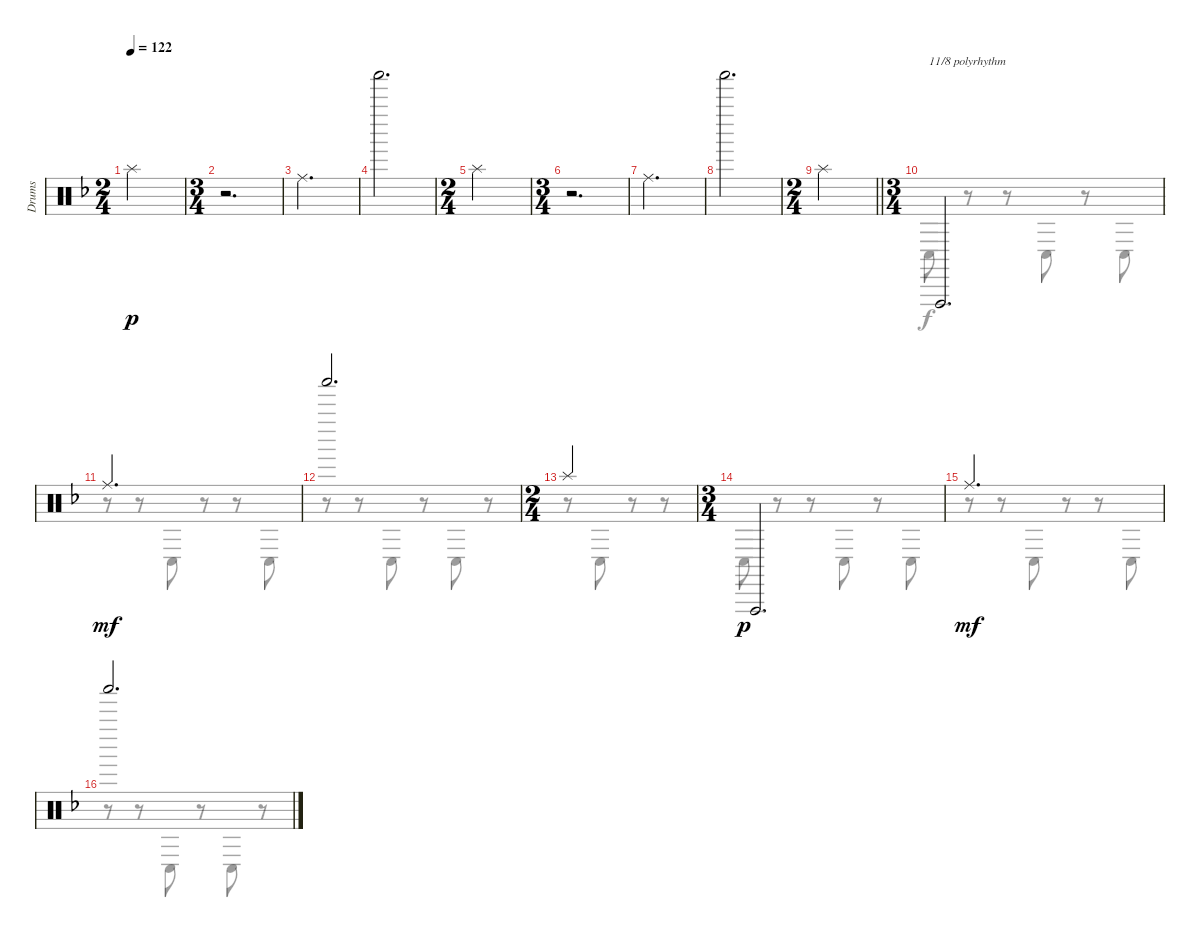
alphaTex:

\track ("Drums" "Drums") {instrument percussion}
\staff {score}
\articulation defaults
\voice
\ts (2 4)
\tempo 122
\clef neutral
\ks dminor "Splash (hit)".2{dy p}
|
\ts (3 4)
r.2{d} |
"Ride (middle)".2{d} |
"Shaker (hit)".2{d} |
\ts (2 4)
"Splash (hit)".2 |
\ts (3 4)
r.2{d} |
"Ride (middle)".2{d} |
"Shaker (hit)".2{d} |
\ts (2 4)
\barLineRight lightlight "Splash (hit)".2
|
\ts (3 4)
"Vibraslap (hit)".2{d txt "11/8 polyrhythm"} |
"Ride (middle)".2{d dy mf} |
"Shaker (hit)".2{d} |
\ts (2 4)
"Splash (hit)".2 |
\ts (3 4)
"Vibraslap (hit)".2{d dy p} |
"Ride (middle)".2{d dy mf} |
"Shaker (hit)".2{d}
\voice
\clef neutral
\ottava regular
\simile none
\ks dminor
|
|
|
|
|
|
|
|
\barLineRight lightlight
|
"Conga low (hit)".8{dy f} r.8 r.8 "Conga low (hit)".8 r.8 "Conga low (hit)".8 |
r.8 r.8 "Conga low (hit)".8 r.8 r.8 "Conga low (hit)".8 |
r.8 r.8 "Conga low (hit)".8 r.8 "Conga low (hit)".8 r.8 |
r.8 "Conga low (hit)".8 r.8 r.8 |
"Conga low (hit)".8 r.8 r.8 "Conga low (hit)".8 r.8 "Conga low (hit)".8 |
r.8 r.8 "Conga low (hit)".8 r.8 r.8 "Conga low (hit)".8 |
r.8 r.8 "Conga low (hit)".8 r.8 "Conga low (hit)".8 r.8
